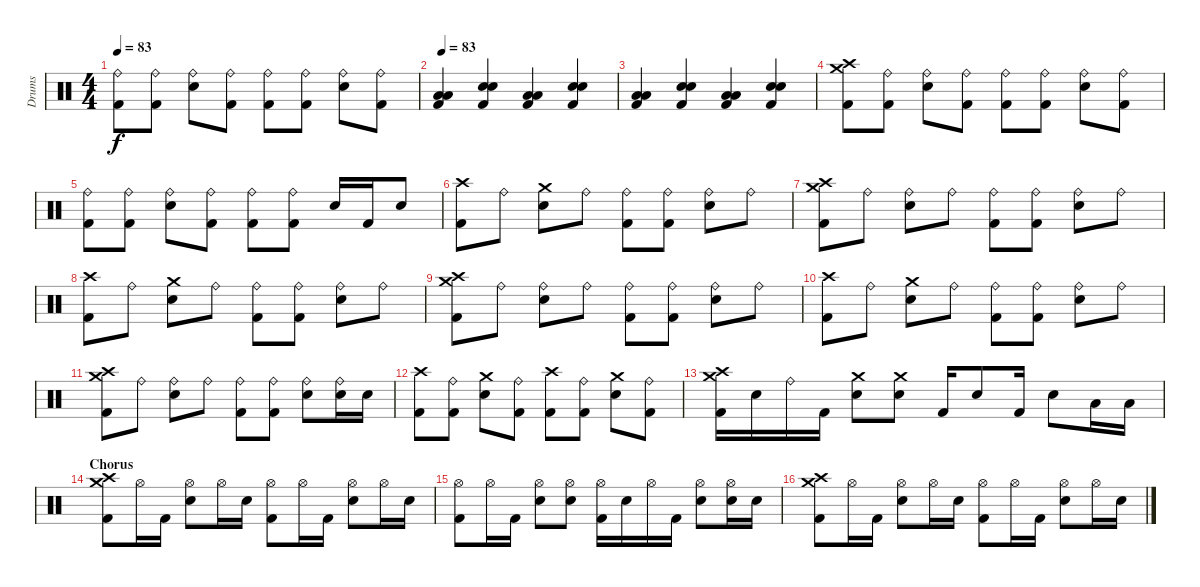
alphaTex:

\track ("Drums" "Drums") {instrument percussion}
\staff {score}
\articulation defaults
\ts (4 4)
\tempo 83
\clef neutral
\ks c
("Ride (bell)" "Kick (hit) 2").8{dy f} ("Ride (bell)" "Kick (hit) 2").8 ("Ride (bell)" "Electric Snare (hit)").8 ("Ride (bell)" "Kick (hit) 2").8 ("Ride (bell)" "Kick (hit) 2").8 ("Ride (bell)" "Kick (hit) 2").8 ("Ride (bell)" "Electric Snare (hit)").8 ("Ride (bell)" "Kick (hit) 2").8 |
\tempo 83
("Low Floor Tom (hit)" "Low Floor Tom (hit)" "Kick (hit) 2").4 ("Electric Snare (hit)" "Electric Snare (hit)" "Kick (hit) 2").4 ("Low Floor Tom (hit)" "Low Floor Tom (hit)" "Kick (hit) 2").4 ("Electric Snare (hit)" "Electric Snare (hit)" "Kick (hit) 2").4 |
("Low Floor Tom (hit)" "Low Floor Tom (hit)" "Kick (hit) 2").4 ("Electric Snare (hit)" "Electric Snare (hit)" "Kick (hit) 2").4 ("Low Floor Tom (hit)" "Low Floor Tom (hit)" "Kick (hit) 2").4 ("Electric Snare (hit)" "Electric Snare (hit)" "Kick (hit) 2").4 |
("Crash high (hit)" "Crash medium (hit)" "Kick (hit) 2").8 ("Ride (bell)" "Kick (hit) 2").8 ("Ride (bell)" "Electric Snare (hit)").8 ("Ride (bell)" "Kick (hit) 2").8 ("Ride (bell)" "Kick (hit) 2").8 ("Ride (bell)" "Kick (hit) 2").8 ("Ride (bell)" "Electric Snare (hit)").8 ("Ride (bell)" "Kick (hit) 2").8 |
("Ride (bell)" "Kick (hit) 2").8 ("Ride (bell)" "Kick (hit) 2").8 ("Ride (bell)" "Electric Snare (hit)").8 ("Ride (bell)" "Kick (hit) 2").8 ("Ride (bell)" "Kick (hit) 2").8 ("Ride (bell)" "Kick (hit) 2").8 "Electric Snare (hit)".16 "Kick (hit) 2".16 "Electric Snare (hit)".8 |
("Crash high (hit)" "Kick (hit) 2").8 "Ride (bell)".8 ("Crash medium (hit)" "Electric Snare (hit)").8 "Ride (bell)".8 ("Ride (bell)" "Kick (hit) 2").8 ("Ride (bell)" "Kick (hit) 2").8 ("Ride (bell)" "Electric Snare (hit)").8 "Ride (bell)".8 |
("Crash high (hit)" "Crash medium (hit)" "Kick (hit) 2").8 "Ride (bell)".8 ("Ride (bell)" "Electric Snare (hit)").8 "Ride (bell)".8 ("Ride (bell)" "Kick (hit) 2").8 ("Ride (bell)" "Kick (hit) 2").8 ("Ride (bell)" "Electric Snare (hit)").8 "Ride (bell)".8 |
("Crash high (hit)" "Kick (hit) 2").8 "Ride (bell)".8 ("Crash medium (hit)" "Electric Snare (hit)").8 "Ride (bell)".8 ("Ride (bell)" "Kick (hit) 2").8 ("Ride (bell)" "Kick (hit) 2").8 ("Ride (bell)" "Electric Snare (hit)").8 "Ride (bell)".8 |
("Crash high (hit)" "Crash medium (hit)" "Kick (hit) 2").8 "Ride (bell)".8 ("Ride (bell)" "Electric Snare (hit)").8 "Ride (bell)".8 ("Ride (bell)" "Kick (hit) 2").8 ("Ride (bell)" "Kick (hit) 2").8 ("Ride (bell)" "Electric Snare (hit)").8 "Ride (bell)".8 |
("Crash high (hit)" "Kick (hit) 2").8 "Ride (bell)".8 ("Crash medium (hit)" "Electric Snare (hit)").8 "Ride (bell)".8 ("Ride (bell)" "Kick (hit) 2").8 ("Ride (bell)" "Kick (hit) 2").8 ("Ride (bell)" "Electric Snare (hit)").8 "Ride (bell)".8 |
("Crash high (hit)" "Crash medium (hit)" "Kick (hit) 2").8 "Ride (bell)".8 ("Ride (bell)" "Electric Snare (hit)").8 "Ride (bell)".8 ("Ride (bell)" "Kick (hit) 2").8 ("Ride (bell)" "Kick (hit) 2").8 ("Ride (bell)" "Electric Snare (hit)").8 ("Ride (bell)" "Electric Snare (hit)").16 "Electric Snare (hit)".16 |
("Crash high (hit)" "Kick (hit) 2").8 ("Ride (bell)" "Kick (hit) 2").8 ("Crash medium (hit)" "Electric Snare (hit)").8 ("Ride (bell)" "Kick (hit) 2").8 ("Crash high (hit)" "Kick (hit) 2").8 ("Ride (bell)" "Kick (hit) 2").8 ("Crash medium (hit)" "Electric Snare (hit)").8 ("Ride (bell)" "Kick (hit) 2").8 |
("Crash high (hit)" "Crash medium (hit)" "Kick (hit) 2").16 "Electric Snare (hit)".16 "Ride (bell)".16 "Kick (hit) 2".16 ("Crash medium (hit)" "Electric Snare (hit)").8 ("Crash medium (hit)" "Electric Snare (hit)").8 "Kick (hit) 2".16 "Electric Snare (hit)".8 "Kick (hit) 2".16 "Electric Snare (hit)".8 "Low Floor Tom (hit)".16 "Low Floor Tom (hit)".16 |
\section ("" "Chorus")
("Crash high (hit)" "Crash medium (hit)" "Kick (hit) 2").8 "Hi-Hat (open)".16 "Kick (hit) 2".16 ("Hi-Hat (open)" "Electric Snare (hit)").8 "Hi-Hat (open)".16 "Electric Snare (hit)".16 ("Hi-Hat (open)" "Kick (hit) 2").8 "Hi-Hat (open)".16 "Kick (hit) 2".16 ("Hi-Hat (open)" "Electric Snare (hit)").8 "Hi-Hat (open)".16 "Electric Snare (hit)".16 |
("Hi-Hat (open)" "Kick (hit) 2").8 "Hi-Hat (open)".16 "Kick (hit) 2".16 ("Hi-Hat (open)" "Electric Snare (hit)").8 ("Hi-Hat (open)" "Electric Snare (hit)").8 ("Hi-Hat (open)" "Kick (hit) 2").16 "Electric Snare (hit)".16 "Hi-Hat (open)".16 "Kick (hit) 2".16 ("Hi-Hat (open)" "Electric Snare (hit)").8 ("Hi-Hat (open)" "Electric Snare (hit)").16 "Electric Snare (hit)".16 |
("Crash high (hit)" "Crash medium (hit)" "Kick (hit) 2").8 "Hi-Hat (open)".16 "Kick (hit) 2".16 ("Hi-Hat (open)" "Electric Snare (hit)").8 "Hi-Hat (open)".16 "Electric Snare (hit)".16 ("Hi-Hat (open)" "Kick (hit) 2").8 "Hi-Hat (open)".16 "Kick (hit) 2".16 ("Hi-Hat (open)" "Electric Snare (hit)").8 "Hi-Hat (open)".16 "Electric Snare (hit)".16
